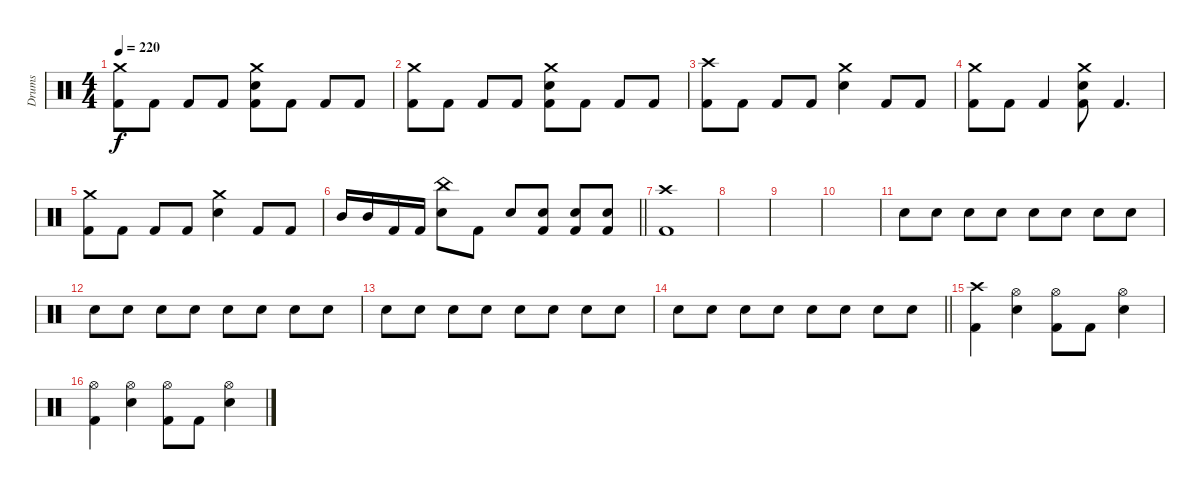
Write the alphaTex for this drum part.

\track ("Drums" "Drums") {instrument percussion}
\staff {score}
\articulation defaults
\ts (4 4)
\tempo 220
\clef neutral
\ks c
("Crash medium (hit)" "Kick (hit) 2").8{dy f} "Kick (hit) 2".8 "Kick (hit) 2".8 "Kick (hit) 2".8 ("Crash medium (hit)" "Snare (hit) 2" "Kick (hit) 2").8 "Kick (hit) 2".8 "Kick (hit) 2".8 "Kick (hit) 2".8 |
("Crash medium (hit)" "Kick (hit) 2").8 "Kick (hit) 2".8 "Kick (hit) 2".8 "Kick (hit) 2".8 ("Crash medium (hit)" "Snare (hit) 2" "Kick (hit) 2").8 "Kick (hit) 2".8 "Kick (hit) 2".8 "Kick (hit) 2".8 |
("Crash high (hit)" "Kick (hit) 2").8 "Kick (hit) 2".8 "Kick (hit) 2".8 "Kick (hit) 2".8 ("Crash medium (hit)" "Snare (hit) 2").4 "Kick (hit) 2".8 "Kick (hit) 2".8 |
("Crash medium (hit)" "Kick (hit) 2").8 "Kick (hit) 2".8 "Kick (hit) 2".4 ("Crash medium (hit)" "Snare (hit) 2" "Kick (hit) 2").8 "Kick (hit) 2".4{d} |
("Crash medium (hit)" "Kick (hit) 2").8 "Kick (hit) 2".8 "Kick (hit) 2".8 "Kick (hit) 2".8 ("Crash medium (hit)" "Snare (hit) 2").4 "Kick (hit) 2".8 "Kick (hit) 2".8 |
\barLineRight lightlight "Mid Tom (hit)".16 "Mid Tom (hit)".16 "Kick (hit) 2".16 "Kick (hit) 2".16
("China (hit)" "Snare (hit) 2").8 "Kick (hit) 2".8 "Snare (hit) 2".8 ("Snare (hit) 2" "Kick (hit) 2").8 ("Snare (hit) 2" "Kick (hit) 2").8 ("Snare (hit) 2" "Kick (hit) 2").8 |
("Crash high (hit)" "Kick (hit) 2").1 |
|
|
|
"Snare (hit) 2".8{volume 16} "Snare (hit) 2".8 "Snare (hit) 2".8 "Snare (hit) 2".8 "Snare (hit) 2".8 "Snare (hit) 2".8 "Snare (hit) 2".8 "Snare (hit) 2".8 |
"Snare (hit) 2".8 "Snare (hit) 2".8 "Snare (hit) 2".8 "Snare (hit) 2".8 "Snare (hit) 2".8 "Snare (hit) 2".8 "Snare (hit) 2".8 "Snare (hit) 2".8 |
"Snare (hit) 2".8 "Snare (hit) 2".8 "Snare (hit) 2".8 "Snare (hit) 2".8 "Snare (hit) 2".8 "Snare (hit) 2".8 "Snare (hit) 2".8 "Snare (hit) 2".8 |
\barLineRight lightlight "Snare (hit) 2".8 "Snare (hit) 2".8 "Snare (hit) 2".8 "Snare (hit) 2".8 "Snare (hit) 2".8 "Snare (hit) 2".8 "Snare (hit) 2".8 "Snare (hit) 2".8
|
("Crash high (hit)" "Kick (hit) 2").4 ("Hi-Hat (open)" "Snare (hit) 2").4 ("Hi-Hat (open)" "Kick (hit) 2").8 "Kick (hit) 2".8 ("Hi-Hat (open)" "Snare (hit) 2").4 |
("Hi-Hat (open)" "Kick (hit) 2").4 ("Hi-Hat (open)" "Snare (hit) 2").4 ("Hi-Hat (open)" "Kick (hit) 2").8 "Kick (hit) 2".8 ("Hi-Hat (open)" "Snare (hit) 2").4
